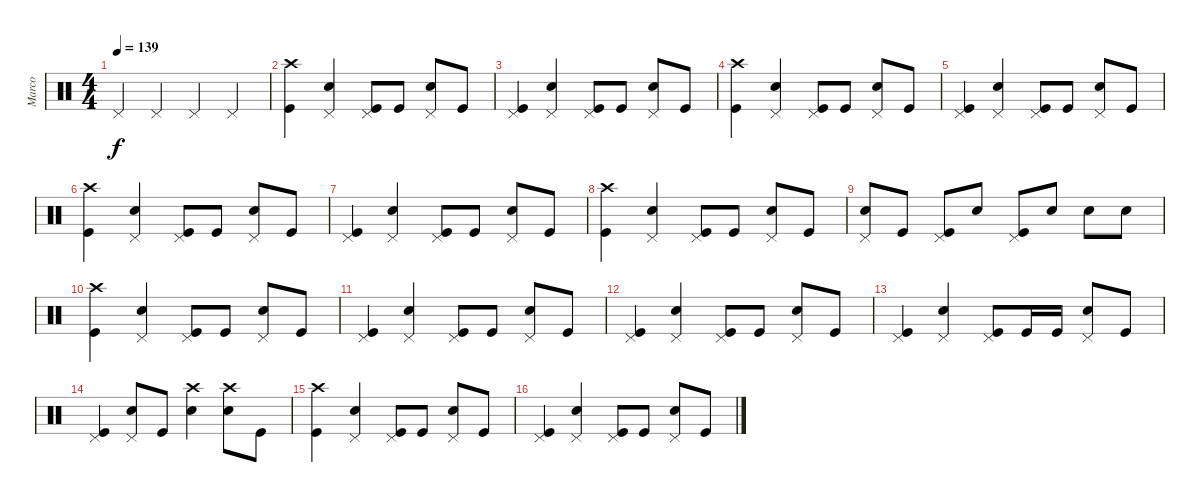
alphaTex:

\track ("Marco" "Marco") {instrument percussion}
\staff {score}
\articulation defaults
\ts (4 4)
\tempo 139
\clef neutral
\ks c "Pedal Hi-Hat (hit)".4{dy f} "Pedal Hi-Hat (hit)".4 "Pedal Hi-Hat (hit)".4 "Pedal Hi-Hat (hit)".4
|
("Crash high (hit)" "Kick (hit)").4 ("Pedal Hi-Hat (hit)" "Snare (hit) 2").4 ("Pedal Hi-Hat (hit)" "Kick (hit)").8 "Kick (hit)".8 ("Pedal Hi-Hat (hit)" "Snare (hit) 2").8 "Kick (hit)".8 |
("Pedal Hi-Hat (hit)" "Kick (hit)").4 ("Pedal Hi-Hat (hit)" "Snare (hit) 2").4 ("Pedal Hi-Hat (hit)" "Kick (hit)").8 "Kick (hit)".8 ("Pedal Hi-Hat (hit)" "Snare (hit) 2").8 "Kick (hit)".8 |
("Crash high (hit)" "Kick (hit)").4 ("Pedal Hi-Hat (hit)" "Snare (hit) 2").4 ("Pedal Hi-Hat (hit)" "Kick (hit)").8 "Kick (hit)".8 ("Pedal Hi-Hat (hit)" "Snare (hit) 2").8 "Kick (hit)".8 |
("Pedal Hi-Hat (hit)" "Kick (hit)").4 ("Pedal Hi-Hat (hit)" "Snare (hit) 2").4 ("Pedal Hi-Hat (hit)" "Kick (hit)").8 "Kick (hit)".8 ("Pedal Hi-Hat (hit)" "Snare (hit) 2").8 "Kick (hit)".8 |
("Crash high (hit)" "Kick (hit)").4 ("Pedal Hi-Hat (hit)" "Snare (hit) 2").4 ("Pedal Hi-Hat (hit)" "Kick (hit)").8 "Kick (hit)".8 ("Pedal Hi-Hat (hit)" "Snare (hit) 2").8 "Kick (hit)".8 |
("Pedal Hi-Hat (hit)" "Kick (hit)").4 ("Pedal Hi-Hat (hit)" "Snare (hit) 2").4 ("Pedal Hi-Hat (hit)" "Kick (hit)").8 "Kick (hit)".8 ("Pedal Hi-Hat (hit)" "Snare (hit) 2").8 "Kick (hit)".8 |
("Crash high (hit)" "Kick (hit)").4 ("Pedal Hi-Hat (hit)" "Snare (hit) 2").4 ("Pedal Hi-Hat (hit)" "Kick (hit)").8 "Kick (hit)".8 ("Pedal Hi-Hat (hit)" "Snare (hit) 2").8 "Kick (hit)".8 |
("Pedal Hi-Hat (hit)" "Snare (hit) 2").8 "Kick (hit)".8 ("Pedal Hi-Hat (hit)" "Kick (hit)").8 "Snare (hit) 2".8 ("Pedal Hi-Hat (hit)" "Kick (hit)").8 "Snare (hit) 2".8 "Snare (hit) 2".8 "Snare (hit) 2".8 |
("Crash high (hit)" "Kick (hit)").4 ("Pedal Hi-Hat (hit)" "Snare (hit) 2").4 ("Pedal Hi-Hat (hit)" "Kick (hit)").8 "Kick (hit)".8 ("Pedal Hi-Hat (hit)" "Snare (hit) 2").8 "Kick (hit)".8 |
("Pedal Hi-Hat (hit)" "Kick (hit)").4 ("Pedal Hi-Hat (hit)" "Snare (hit) 2").4 ("Pedal Hi-Hat (hit)" "Kick (hit)").8 "Kick (hit)".8 ("Pedal Hi-Hat (hit)" "Snare (hit) 2").8 "Kick (hit)".8 |
("Pedal Hi-Hat (hit)" "Kick (hit)").4 ("Pedal Hi-Hat (hit)" "Snare (hit) 2").4 ("Pedal Hi-Hat (hit)" "Kick (hit)").8 "Kick (hit)".8 ("Pedal Hi-Hat (hit)" "Snare (hit) 2").8 "Kick (hit)".8 |
("Pedal Hi-Hat (hit)" "Kick (hit)").4 ("Pedal Hi-Hat (hit)" "Snare (hit) 2").4 ("Pedal Hi-Hat (hit)" "Kick (hit)").8 "Kick (hit)".16 "Kick (hit)".16 ("Pedal Hi-Hat (hit)" "Snare (hit) 2").8 "Kick (hit)".8 |
("Pedal Hi-Hat (hit)" "Kick (hit)").4 ("Pedal Hi-Hat (hit)" "Snare (hit) 2").8 "Kick (hit)".8 ("Crash high (hit)" "Snare (hit) 2").4 ("Crash high (hit)" "Snare (hit) 2").8 "Kick (hit)".8 |
("Crash high (hit)" "Kick (hit)").4 ("Pedal Hi-Hat (hit)" "Snare (hit) 2").4 ("Pedal Hi-Hat (hit)" "Kick (hit)").8 "Kick (hit)".8 ("Pedal Hi-Hat (hit)" "Snare (hit) 2").8 "Kick (hit)".8 |
("Pedal Hi-Hat (hit)" "Kick (hit)").4 ("Pedal Hi-Hat (hit)" "Snare (hit) 2").4 ("Pedal Hi-Hat (hit)" "Kick (hit)").8 "Kick (hit)".8 ("Pedal Hi-Hat (hit)" "Snare (hit) 2").8 "Kick (hit)".8
